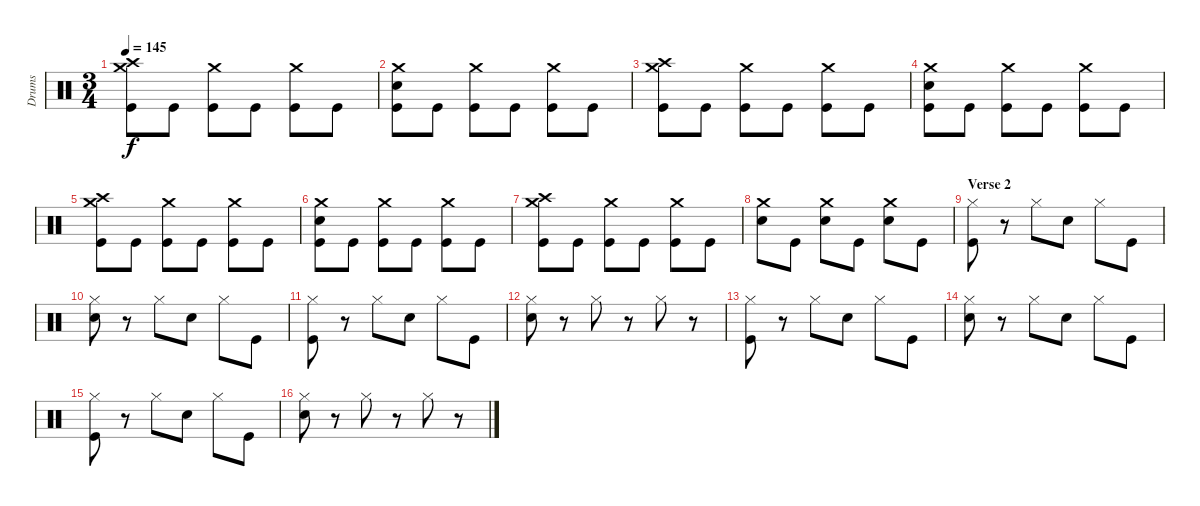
\track ("Drums" "Drums") {instrument percussion}
\staff {score}
\articulation defaults
\ts (3 4)
\tempo 145
\clef neutral
\ks c
("Crash high (hit)" "Crash medium (hit)" "Kick (hit)").8{dy f} "Kick (hit)".8 ("Crash medium (hit)" "Kick (hit)").8 "Kick (hit)".8 ("Crash medium (hit)" "Kick (hit)").8 "Kick (hit)".8 |
("Crash medium (hit)" "Electric Snare (hit)" "Kick (hit)").8 "Kick (hit)".8 ("Crash medium (hit)" "Kick (hit)").8 "Kick (hit)".8 ("Crash medium (hit)" "Kick (hit)").8 "Kick (hit)".8 |
("Crash high (hit)" "Crash medium (hit)" "Kick (hit)").8 "Kick (hit)".8 ("Crash medium (hit)" "Kick (hit)").8 "Kick (hit)".8 ("Crash medium (hit)" "Kick (hit)").8 "Kick (hit)".8 |
("Crash medium (hit)" "Electric Snare (hit)" "Kick (hit)").8 "Kick (hit)".8 ("Crash medium (hit)" "Kick (hit)").8 "Kick (hit)".8 ("Crash medium (hit)" "Kick (hit)").8 "Kick (hit)".8 |
("Crash high (hit)" "Crash medium (hit)" "Kick (hit)").8 "Kick (hit)".8 ("Crash medium (hit)" "Kick (hit)").8 "Kick (hit)".8 ("Crash medium (hit)" "Kick (hit)").8 "Kick (hit)".8 |
("Crash medium (hit)" "Electric Snare (hit)" "Kick (hit)").8 "Kick (hit)".8 ("Crash medium (hit)" "Kick (hit)").8 "Kick (hit)".8 ("Crash medium (hit)" "Kick (hit)").8 "Kick (hit)".8 |
("Crash high (hit)" "Crash medium (hit)" "Kick (hit)").8 "Kick (hit)".8 ("Crash medium (hit)" "Kick (hit)").8 "Kick (hit)".8 ("Crash medium (hit)" "Kick (hit)").8 "Kick (hit)".8 |
("Crash medium (hit)" "Electric Snare (hit)").8 "Kick (hit)".8 ("Crash medium (hit)" "Electric Snare (hit)").8 "Kick (hit)".8 ("Crash medium (hit)" "Electric Snare (hit)").8 "Kick (hit)".8 |
\section ("" "Verse 2")
("Hi-Hat (closed)" "Kick (hit)").8 r.8 "Hi-Hat (closed)".8 "Electric Snare (hit)".8 "Hi-Hat (closed)".8 "Kick (hit)".8 |
("Hi-Hat (closed)" "Electric Snare (hit)").8 r.8 "Hi-Hat (closed)".8 "Electric Snare (hit)".8 "Hi-Hat (closed)".8 "Kick (hit)".8 |
("Hi-Hat (closed)" "Kick (hit)").8 r.8 "Hi-Hat (closed)".8 "Electric Snare (hit)".8 "Hi-Hat (closed)".8 "Kick (hit)".8 |
("Hi-Hat (closed)" "Electric Snare (hit)").8 r.8 "Hi-Hat (closed)".8 r.8 "Hi-Hat (closed)".8 r.8 |
("Hi-Hat (closed)" "Kick (hit)").8 r.8 "Hi-Hat (closed)".8 "Electric Snare (hit)".8 "Hi-Hat (closed)".8 "Kick (hit)".8 |
("Hi-Hat (closed)" "Electric Snare (hit)").8 r.8 "Hi-Hat (closed)".8 "Electric Snare (hit)".8 "Hi-Hat (closed)".8 "Kick (hit)".8 |
("Hi-Hat (closed)" "Kick (hit)").8 r.8 "Hi-Hat (closed)".8 "Electric Snare (hit)".8 "Hi-Hat (closed)".8 "Kick (hit)".8 |
("Hi-Hat (closed)" "Electric Snare (hit)").8 r.8 "Hi-Hat (closed)".8 r.8 "Hi-Hat (closed)".8 r.8
